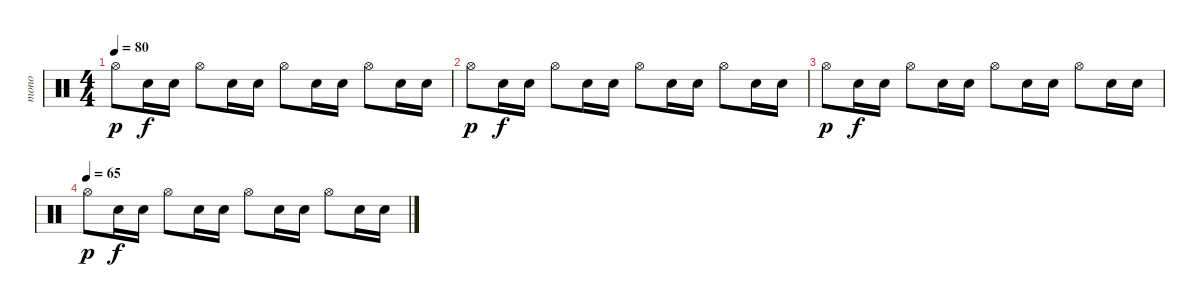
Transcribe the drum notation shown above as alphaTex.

\track ("mono" "mono") {instrument percussion}
\staff {score}
\articulation defaults
\ts (4 4)
\tempo 80
\clef neutral
\ks c "Hi-Hat (open)".8{dy p volume 3} "Snare (hit) 2".16{dy f} "Snare (hit) 2".16 "Hi-Hat (open)".8 "Snare (hit) 2".16 "Snare (hit) 2".16 "Hi-Hat (open)".8 "Snare (hit) 2".16 "Snare (hit) 2".16 "Hi-Hat (open)".8 "Snare (hit) 2".16 "Snare (hit) 2".16
|
"Hi-Hat (open)".8{dy p volume 3} "Snare (hit) 2".16{dy f} "Snare (hit) 2".16 "Hi-Hat (open)".8 "Snare (hit) 2".16 "Snare (hit) 2".16 "Hi-Hat (open)".8 "Snare (hit) 2".16 "Snare (hit) 2".16 "Hi-Hat (open)".8 "Snare (hit) 2".16 "Snare (hit) 2".16 |
"Hi-Hat (open)".8{dy p volume 1} "Snare (hit) 2".16{dy f} "Snare (hit) 2".16 "Hi-Hat (open)".8 "Snare (hit) 2".16 "Snare (hit) 2".16 "Hi-Hat (open)".8 "Snare (hit) 2".16 "Snare (hit) 2".16 "Hi-Hat (open)".8 "Snare (hit) 2".16 "Snare (hit) 2".16 |
\tempo (65)
"Hi-Hat (open)".8{dy p volume 0} "Snare (hit) 2".16{dy f} "Snare (hit) 2".16 "Hi-Hat (open)".8 "Snare (hit) 2".16 "Snare (hit) 2".16 "Hi-Hat (open)".8 "Snare (hit) 2".16 "Snare (hit) 2".16 "Hi-Hat (open)".8 "Snare (hit) 2".16 "Snare (hit) 2".16
